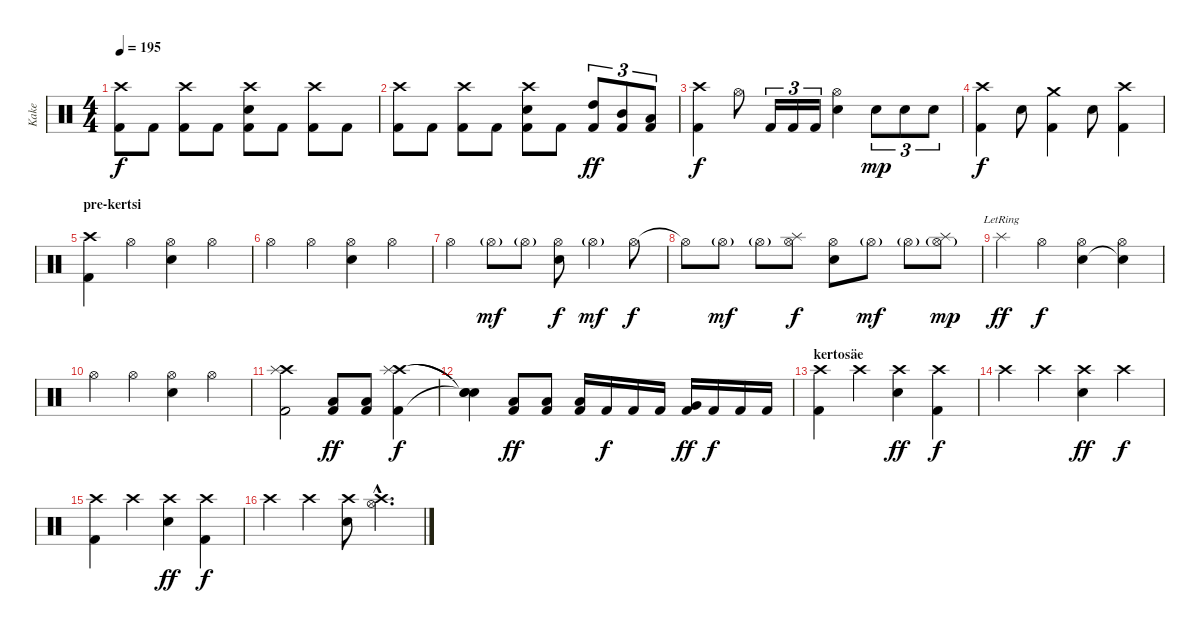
\track ("Kake " "Kake ") {instrument percussion}
\staff {score}
\articulation defaults
\ts (4 4)
\tempo 195
\clef neutral
\ks c
("Crash high (hit)" "Kick (hit) 2").8{dy f} "Kick (hit) 2".8 ("Crash high (hit)" "Kick (hit) 2").8 "Kick (hit) 2".8 ("Crash high (hit)" "Electric Snare (hit)" "Kick (hit) 2").8 "Kick (hit) 2".8 ("Crash high (hit)" "Kick (hit) 2").8 "Kick (hit) 2".8 |
("Crash high (hit)" "Kick (hit) 2").8 "Kick (hit) 2".8 ("Crash high (hit)" "Kick (hit) 2").8 "Kick (hit) 2".8 ("Crash high (hit)" "Electric Snare (hit)" "Kick (hit) 2").8 "Kick (hit) 2".8 ("High Tom (hit)" "Kick (hit) 2").8{tu (3 2) dy ff} ("Mid Tom (hit)" "Kick (hit) 2").8{tu (3 2)} ("Low Tom (hit)" "Kick (hit) 2").8{tu (3 2)} |
("Crash high (hit)" "Kick (hit) 2").4{dy f} "Hi-Hat (open)".8 "Kick (hit) 2".16{tu (3 2)} "Kick (hit) 2".16{tu (3 2)} "Kick (hit) 2".16{tu (3 2)} ("Hi-Hat (open)" "Electric Snare (hit)").4 "Electric Snare (hit)".8{tu (3 2) dy mp} "Electric Snare (hit)".8{tu (3 2)} "Electric Snare (hit)".8{tu (3 2)} |
("Crash high (hit)" "Kick (hit) 2").4{dy f} "Electric Snare (hit)".8 ("Crash medium (hit)" "Kick (hit) 2").4 "Electric Snare (hit)".8 ("Crash high (hit)" "Kick (hit) 2").4 |
\section ("" "pre-kertsi")
("Crash high (hit)" "Kick (hit) 2").4 "Hi-Hat (open)".4 ("Hi-Hat (open)" "Electric Snare (hit)").4 "Hi-Hat (open)".4 |
"Hi-Hat (open)".4 "Hi-Hat (open)".4 ("Hi-Hat (open)" "Electric Snare (hit)").4 "Hi-Hat (open)".4 |
"Hi-Hat (open)".4 "Hi-Hat (open)"{g}.8{dy mf} "Hi-Hat (open)"{g}.8 ("Hi-Hat (open)" "Electric Snare (hit)").8{dy f} "Hi-Hat (open)"{g}.4{dy mf} "Hi-Hat (open)".8{dy f} |
"Hi-Hat (open)"{t}.8 "Hi-Hat (open)"{g}.8{dy mf} "Hi-Hat (open)"{g}.8 ("Hi-Hat (open)" "Splash (hit)").8{dy f} ("Hi-Hat (open)" "Electric Snare (hit)").8 "Hi-Hat (open)"{g}.8{dy mf} "Hi-Hat (open)"{g}.8 ("Hi-Hat (open)"{g} "Splash (hit)").8{dy mp} |
"Splash (hit)"{lr}.4{dy ff} "Hi-Hat (open)".4{dy f} ("Hi-Hat (open)" "Electric Snare (hit)").4 ("Hi-Hat (open)" "Snare (hit)"{t}).4 |
"Hi-Hat (open)".4 "Hi-Hat (open)".4 ("Hi-Hat (open)" "Electric Snare (hit)").4 "Hi-Hat (open)".4 |
("Crash high (hit)" "Splash (hit)" "Kick (hit) 2").2 ("Low Tom (hit)" "Kick (hit) 2").8{dy ff} ("Low Tom (hit)" "Kick (hit) 2").8 ("Crash high (hit)" "Splash (hit)" "Kick (hit) 2").4{dy f} |
("Snare (hit)"{t} "Snare (hit)"{t} "Snare (hit)"{t}).4 ("Low Tom (hit)" "Kick (hit) 2").8{dy ff} ("Low Tom (hit)" "Kick (hit) 2").8 ("Low Tom (hit)" "Kick (hit) 2").16 "Kick (hit) 2".16{dy f} "Kick (hit) 2".16 "Kick (hit) 2".16 ("Very Low Tom (hit)" "Kick (hit) 2").16{dy ff} "Kick (hit) 2".16{dy f} "Kick (hit) 2".16 "Kick (hit) 2".16 |
\section ("" "kertosäe")
("Crash high (hit)" "Kick (hit) 2").4 "Crash high (hit)".4 ("Crash high (hit)" "Electric Snare (hit)").4{dy ff} ("Crash high (hit)" "Kick (hit) 2").4{dy f} |
"Crash high (hit)".4 "Crash high (hit)".4 ("Crash high (hit)" "Electric Snare (hit)").4{dy ff} "Crash high (hit)".4{dy f} |
("Crash high (hit)" "Kick (hit) 2").4 "Crash high (hit)".4 ("Crash high (hit)" "Electric Snare (hit)").4{dy ff} ("Crash high (hit)" "Kick (hit) 2").4{dy f} |
"Crash high (hit)".4 "Crash high (hit)".4 ("Crash high (hit)"{pm} "Electric Snare (hit)").8 ("Hi-Hat (open)"{hac} "Crash high (hit)"{hac}).4{d}
